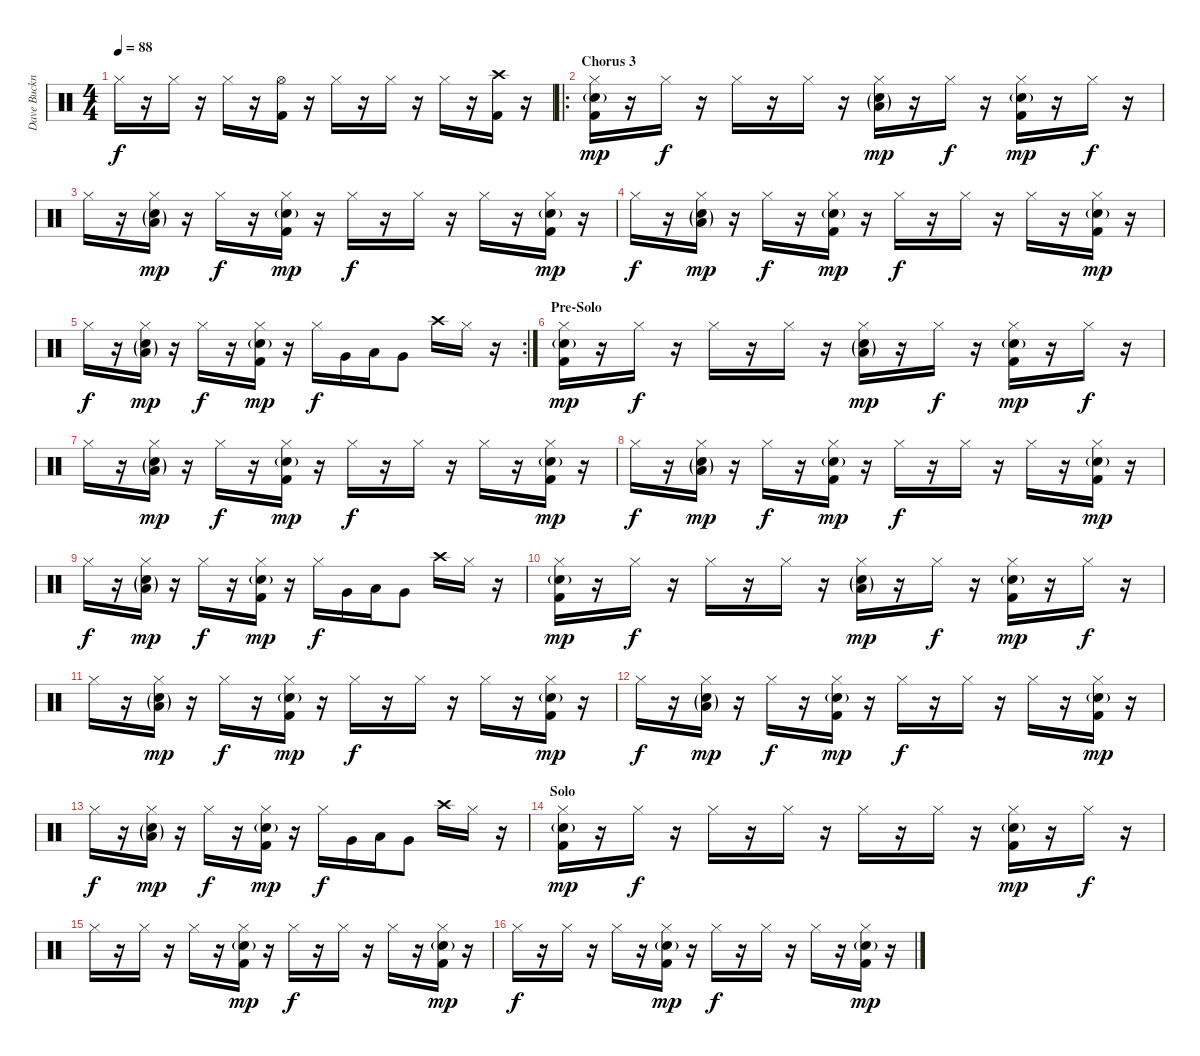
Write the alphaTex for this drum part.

\track ("Dave Buckner" "Dave Buckn") {instrument percussion}
\staff {score}
\articulation defaults
\ts (4 4)
\tempo 88
\clef neutral
\ks c "Hi-Hat (closed)".16{dy f}
r.16 "Hi-Hat (closed)".16 r.16 "Hi-Hat (closed)".16 r.16 ("Hi-Hat (open)" "Kick (hit) 2").16 r.16 "Hi-Hat (closed)".16 r.16 "Hi-Hat (closed)".16 r.16 "Hi-Hat (closed)".16 r.16 ("Crash high (hit)" "Kick (hit) 2").16 r.16 |
\ro
\section ("" "Chorus 3")
("Hi-Hat (closed)" "Snare (hit) 2"{g} "Kick (hit) 2").16{dy mp} r.16 "Hi-Hat (closed)".16{dy f} r.16 "Hi-Hat (closed)".16 r.16 "Hi-Hat (closed)".16 r.16 ("Hi-Hat (closed)" "Low Tom (hit)"{g} "Snare (hit) 2"{g}).16{dy mp} r.16 "Hi-Hat (closed)".16{dy f} r.16 ("Hi-Hat (closed)" "Snare (hit) 2"{g} "Kick (hit) 2").16{dy mp} r.16 "Hi-Hat (closed)".16{dy f} r.16 |
"Hi-Hat (closed)".16 r.16 ("Hi-Hat (closed)" "Low Tom (hit)"{g} "Snare (hit) 2"{g}).16{dy mp} r.16 "Hi-Hat (closed)".16{dy f} r.16 ("Hi-Hat (closed)" "Snare (hit) 2"{g} "Kick (hit) 2").16{dy mp} r.16 "Hi-Hat (closed)".16{dy f} r.16 "Hi-Hat (closed)".16 r.16 "Hi-Hat (closed)".16 r.16 ("Hi-Hat (closed)" "Snare (hit) 2"{g} "Kick (hit) 2").16{dy mp} r.16 |
"Hi-Hat (closed)".16{dy f} r.16 ("Hi-Hat (closed)" "Low Tom (hit)"{g} "Snare (hit) 2"{g}).16{dy mp} r.16 "Hi-Hat (closed)".16{dy f} r.16 ("Hi-Hat (closed)" "Snare (hit) 2"{g} "Kick (hit) 2").16{dy mp} r.16 "Hi-Hat (closed)".16{dy f} r.16 "Hi-Hat (closed)".16 r.16 "Hi-Hat (closed)".16 r.16 ("Hi-Hat (closed)" "Snare (hit) 2"{g} "Kick (hit) 2").16{dy mp} r.16 |
\rc 2 "Hi-Hat (closed)".16{dy f}
r.16 ("Hi-Hat (closed)" "Low Tom (hit)"{g} "Snare (hit) 2"{g}).16{dy mp} r.16 "Hi-Hat (closed)".16{dy f} r.16 ("Hi-Hat (closed)" "Snare (hit) 2"{g} "Kick (hit) 2").16{dy mp} r.16 "Hi-Hat (closed)".16{dy f} "Very Low Tom (hit)".16 "Low Floor Tom (hit)".16 "Very Low Tom (hit)".8 "Crash high (hit)".16 "Hi-Hat (closed)".16 r.16 |
\section ("" "Pre-Solo")
("Hi-Hat (closed)" "Snare (hit) 2"{g} "Kick (hit) 2").16{dy mp} r.16 "Hi-Hat (closed)".16{dy f} r.16 "Hi-Hat (closed)".16 r.16 "Hi-Hat (closed)".16 r.16 ("Hi-Hat (closed)" "Low Tom (hit)"{g} "Snare (hit) 2"{g}).16{dy mp} r.16 "Hi-Hat (closed)".16{dy f} r.16 ("Hi-Hat (closed)" "Snare (hit) 2"{g} "Kick (hit) 2").16{dy mp} r.16 "Hi-Hat (closed)".16{dy f} r.16 |
"Hi-Hat (closed)".16 r.16 ("Hi-Hat (closed)" "Low Tom (hit)"{g} "Snare (hit) 2"{g}).16{dy mp} r.16 "Hi-Hat (closed)".16{dy f} r.16 ("Hi-Hat (closed)" "Snare (hit) 2"{g} "Kick (hit) 2").16{dy mp} r.16 "Hi-Hat (closed)".16{dy f} r.16 "Hi-Hat (closed)".16 r.16 "Hi-Hat (closed)".16 r.16 ("Hi-Hat (closed)" "Snare (hit) 2"{g} "Kick (hit) 2").16{dy mp} r.16 |
"Hi-Hat (closed)".16{dy f} r.16 ("Hi-Hat (closed)" "Low Tom (hit)"{g} "Snare (hit) 2"{g}).16{dy mp} r.16 "Hi-Hat (closed)".16{dy f} r.16 ("Hi-Hat (closed)" "Snare (hit) 2"{g} "Kick (hit) 2").16{dy mp} r.16 "Hi-Hat (closed)".16{dy f} r.16 "Hi-Hat (closed)".16 r.16 "Hi-Hat (closed)".16 r.16 ("Hi-Hat (closed)" "Snare (hit) 2"{g} "Kick (hit) 2").16{dy mp} r.16 |
"Hi-Hat (closed)".16{dy f} r.16 ("Hi-Hat (closed)" "Low Tom (hit)"{g} "Snare (hit) 2"{g}).16{dy mp} r.16 "Hi-Hat (closed)".16{dy f} r.16 ("Hi-Hat (closed)" "Snare (hit) 2"{g} "Kick (hit) 2").16{dy mp} r.16 "Hi-Hat (closed)".16{dy f} "Very Low Tom (hit)".16 "Low Floor Tom (hit)".16 "Very Low Tom (hit)".8 "Crash high (hit)".16 "Hi-Hat (closed)".16 r.16 |
("Hi-Hat (closed)" "Snare (hit) 2"{g} "Kick (hit) 2").16{dy mp} r.16 "Hi-Hat (closed)".16{dy f} r.16 "Hi-Hat (closed)".16 r.16 "Hi-Hat (closed)".16 r.16 ("Hi-Hat (closed)" "Low Tom (hit)"{g} "Snare (hit) 2"{g}).16{dy mp} r.16 "Hi-Hat (closed)".16{dy f} r.16 ("Hi-Hat (closed)" "Snare (hit) 2"{g} "Kick (hit) 2").16{dy mp} r.16 "Hi-Hat (closed)".16{dy f} r.16 |
"Hi-Hat (closed)".16 r.16 ("Hi-Hat (closed)" "Low Tom (hit)"{g} "Snare (hit) 2"{g}).16{dy mp} r.16 "Hi-Hat (closed)".16{dy f} r.16 ("Hi-Hat (closed)" "Snare (hit) 2"{g} "Kick (hit) 2").16{dy mp} r.16 "Hi-Hat (closed)".16{dy f} r.16 "Hi-Hat (closed)".16 r.16 "Hi-Hat (closed)".16 r.16 ("Hi-Hat (closed)" "Snare (hit) 2"{g} "Kick (hit) 2").16{dy mp} r.16 |
"Hi-Hat (closed)".16{dy f} r.16 ("Hi-Hat (closed)" "Low Tom (hit)"{g} "Snare (hit) 2"{g}).16{dy mp} r.16 "Hi-Hat (closed)".16{dy f} r.16 ("Hi-Hat (closed)" "Snare (hit) 2"{g} "Kick (hit) 2").16{dy mp} r.16 "Hi-Hat (closed)".16{dy f} r.16 "Hi-Hat (closed)".16 r.16 "Hi-Hat (closed)".16 r.16 ("Hi-Hat (closed)" "Snare (hit) 2"{g} "Kick (hit) 2").16{dy mp} r.16 |
"Hi-Hat (closed)".16{dy f} r.16 ("Hi-Hat (closed)" "Low Tom (hit)"{g} "Snare (hit) 2"{g}).16{dy mp} r.16 "Hi-Hat (closed)".16{dy f} r.16 ("Hi-Hat (closed)" "Snare (hit) 2"{g} "Kick (hit) 2").16{dy mp} r.16 "Hi-Hat (closed)".16{dy f} "Very Low Tom (hit)".16 "Low Floor Tom (hit)".16 "Very Low Tom (hit)".8 "Crash high (hit)".16 "Hi-Hat (closed)".16 r.16 |
\section ("" "Solo")
("Hi-Hat (closed)" "Snare (hit) 2"{g} "Kick (hit) 2").16{dy mp} r.16 "Hi-Hat (closed)".16{dy f} r.16 "Hi-Hat (closed)".16 r.16 "Hi-Hat (closed)".16 r.16 "Hi-Hat (closed)".16 r.16 "Hi-Hat (closed)".16 r.16 ("Hi-Hat (closed)" "Snare (hit) 2"{g} "Kick (hit) 2").16{dy mp} r.16 "Hi-Hat (closed)".16{dy f} r.16 |
"Hi-Hat (closed)".16 r.16 "Hi-Hat (closed)".16 r.16 "Hi-Hat (closed)".16 r.16 ("Hi-Hat (closed)" "Snare (hit) 2"{g} "Kick (hit) 2").16{dy mp} r.16 "Hi-Hat (closed)".16{dy f} r.16 "Hi-Hat (closed)".16 r.16 "Hi-Hat (closed)".16 r.16 ("Hi-Hat (closed)" "Snare (hit) 2"{g} "Kick (hit) 2").16{dy mp} r.16 |
"Hi-Hat (closed)".16{dy f} r.16 "Hi-Hat (closed)".16 r.16 "Hi-Hat (closed)".16 r.16 ("Hi-Hat (closed)" "Snare (hit) 2"{g} "Kick (hit) 2").16{dy mp} r.16 "Hi-Hat (closed)".16{dy f} r.16 "Hi-Hat (closed)".16 r.16 "Hi-Hat (closed)".16 r.16 ("Hi-Hat (closed)" "Snare (hit) 2"{g} "Kick (hit) 2").16{dy mp} r.16
